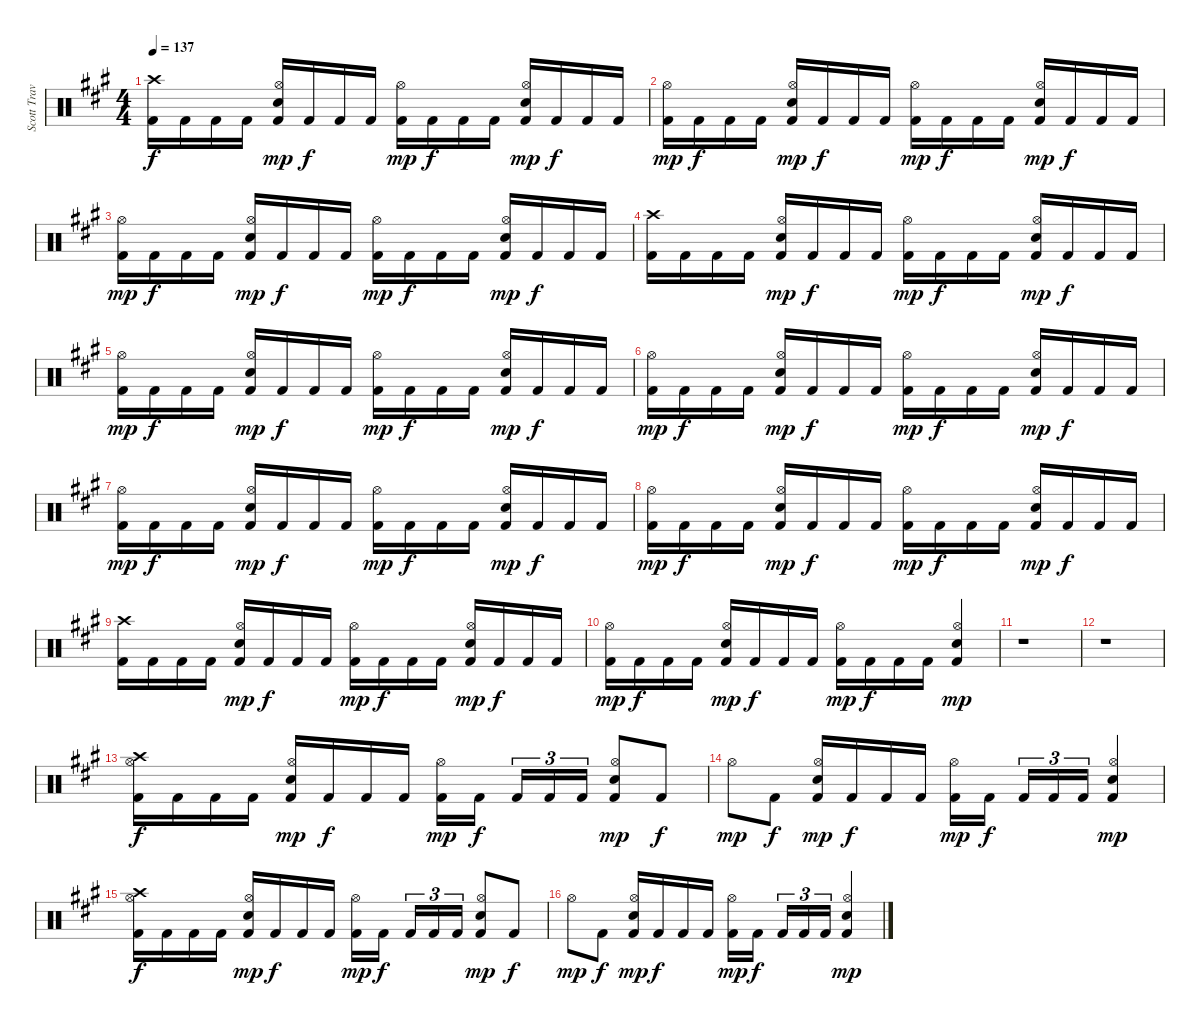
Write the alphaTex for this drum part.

\track ("Scott Travis" "Scott Trav") {instrument percussion}
\staff {score}
\articulation defaults
\ts (4 4)
\tempo 137
\clef neutral
\ks f#minor
("Crash high (hit)" "Kick (hit) 2").16{dy f} "Kick (hit) 2".16 "Kick (hit) 2".16 "Kick (hit) 2".16 ("Hi-Hat (open)" "Snare (hit) 2" "Kick (hit) 2").16{dy mp} "Kick (hit) 2".16{dy f} "Kick (hit) 2".16 "Kick (hit) 2".16 ("Hi-Hat (open)" "Kick (hit) 2").16{dy mp} "Kick (hit) 2".16{dy f} "Kick (hit) 2".16 "Kick (hit) 2".16 ("Hi-Hat (open)" "Snare (hit) 2" "Kick (hit) 2").16{dy mp} "Kick (hit) 2".16{dy f} "Kick (hit) 2".16 "Kick (hit) 2".16 |
("Hi-Hat (open)" "Kick (hit) 2").16{dy mp} "Kick (hit) 2".16{dy f} "Kick (hit) 2".16 "Kick (hit) 2".16 ("Hi-Hat (open)" "Snare (hit) 2" "Kick (hit) 2").16{dy mp} "Kick (hit) 2".16{dy f} "Kick (hit) 2".16 "Kick (hit) 2".16 ("Hi-Hat (open)" "Kick (hit) 2").16{dy mp} "Kick (hit) 2".16{dy f} "Kick (hit) 2".16 "Kick (hit) 2".16 ("Hi-Hat (open)" "Snare (hit) 2" "Kick (hit) 2").16{dy mp} "Kick (hit) 2".16{dy f} "Kick (hit) 2".16 "Kick (hit) 2".16 |
("Hi-Hat (open)" "Kick (hit) 2").16{dy mp} "Kick (hit) 2".16{dy f} "Kick (hit) 2".16 "Kick (hit) 2".16 ("Hi-Hat (open)" "Snare (hit) 2" "Kick (hit) 2").16{dy mp} "Kick (hit) 2".16{dy f} "Kick (hit) 2".16 "Kick (hit) 2".16 ("Hi-Hat (open)" "Kick (hit) 2").16{dy mp} "Kick (hit) 2".16{dy f} "Kick (hit) 2".16 "Kick (hit) 2".16 ("Hi-Hat (open)" "Snare (hit) 2" "Kick (hit) 2").16{dy mp} "Kick (hit) 2".16{dy f} "Kick (hit) 2".16 "Kick (hit) 2".16 |
("Crash high (hit)" "Kick (hit) 2").16 "Kick (hit) 2".16 "Kick (hit) 2".16 "Kick (hit) 2".16 ("Hi-Hat (open)" "Snare (hit) 2" "Kick (hit) 2").16{dy mp} "Kick (hit) 2".16{dy f} "Kick (hit) 2".16 "Kick (hit) 2".16 ("Hi-Hat (open)" "Kick (hit) 2").16{dy mp} "Kick (hit) 2".16{dy f} "Kick (hit) 2".16 "Kick (hit) 2".16 ("Hi-Hat (open)" "Snare (hit) 2" "Kick (hit) 2").16{dy mp} "Kick (hit) 2".16{dy f} "Kick (hit) 2".16 "Kick (hit) 2".16 |
("Hi-Hat (open)" "Kick (hit) 2").16{dy mp} "Kick (hit) 2".16{dy f} "Kick (hit) 2".16 "Kick (hit) 2".16 ("Hi-Hat (open)" "Snare (hit) 2" "Kick (hit) 2").16{dy mp} "Kick (hit) 2".16{dy f} "Kick (hit) 2".16 "Kick (hit) 2".16 ("Hi-Hat (open)" "Kick (hit) 2").16{dy mp} "Kick (hit) 2".16{dy f} "Kick (hit) 2".16 "Kick (hit) 2".16 ("Hi-Hat (open)" "Snare (hit) 2" "Kick (hit) 2").16{dy mp} "Kick (hit) 2".16{dy f} "Kick (hit) 2".16 "Kick (hit) 2".16 |
("Hi-Hat (open)" "Kick (hit) 2").16{dy mp} "Kick (hit) 2".16{dy f} "Kick (hit) 2".16 "Kick (hit) 2".16 ("Hi-Hat (open)" "Snare (hit) 2" "Kick (hit) 2").16{dy mp} "Kick (hit) 2".16{dy f} "Kick (hit) 2".16 "Kick (hit) 2".16 ("Hi-Hat (open)" "Kick (hit) 2").16{dy mp} "Kick (hit) 2".16{dy f} "Kick (hit) 2".16 "Kick (hit) 2".16 ("Hi-Hat (open)" "Snare (hit) 2" "Kick (hit) 2").16{dy mp} "Kick (hit) 2".16{dy f} "Kick (hit) 2".16 "Kick (hit) 2".16 |
("Hi-Hat (open)" "Kick (hit) 2").16{dy mp} "Kick (hit) 2".16{dy f} "Kick (hit) 2".16 "Kick (hit) 2".16 ("Hi-Hat (open)" "Snare (hit) 2" "Kick (hit) 2").16{dy mp} "Kick (hit) 2".16{dy f} "Kick (hit) 2".16 "Kick (hit) 2".16 ("Hi-Hat (open)" "Kick (hit) 2").16{dy mp} "Kick (hit) 2".16{dy f} "Kick (hit) 2".16 "Kick (hit) 2".16 ("Hi-Hat (open)" "Snare (hit) 2" "Kick (hit) 2").16{dy mp} "Kick (hit) 2".16{dy f} "Kick (hit) 2".16 "Kick (hit) 2".16 |
("Hi-Hat (open)" "Kick (hit) 2").16{dy mp} "Kick (hit) 2".16{dy f} "Kick (hit) 2".16 "Kick (hit) 2".16 ("Hi-Hat (open)" "Snare (hit) 2" "Kick (hit) 2").16{dy mp} "Kick (hit) 2".16{dy f} "Kick (hit) 2".16 "Kick (hit) 2".16 ("Hi-Hat (open)" "Kick (hit) 2").16{dy mp} "Kick (hit) 2".16{dy f} "Kick (hit) 2".16 "Kick (hit) 2".16 ("Hi-Hat (open)" "Snare (hit) 2" "Kick (hit) 2").16{dy mp} "Kick (hit) 2".16{dy f} "Kick (hit) 2".16 "Kick (hit) 2".16 |
("Crash high (hit)" "Kick (hit) 2").16 "Kick (hit) 2".16 "Kick (hit) 2".16 "Kick (hit) 2".16 ("Hi-Hat (open)" "Snare (hit) 2" "Kick (hit) 2").16{dy mp} "Kick (hit) 2".16{dy f} "Kick (hit) 2".16 "Kick (hit) 2".16 ("Hi-Hat (open)" "Kick (hit) 2").16{dy mp} "Kick (hit) 2".16{dy f} "Kick (hit) 2".16 "Kick (hit) 2".16 ("Hi-Hat (open)" "Snare (hit) 2" "Kick (hit) 2").16{dy mp} "Kick (hit) 2".16{dy f} "Kick (hit) 2".16 "Kick (hit) 2".16 |
("Hi-Hat (open)" "Kick (hit) 2").16{dy mp} "Kick (hit) 2".16{dy f} "Kick (hit) 2".16 "Kick (hit) 2".16 ("Hi-Hat (open)" "Snare (hit) 2" "Kick (hit) 2").16{dy mp} "Kick (hit) 2".16{dy f} "Kick (hit) 2".16 "Kick (hit) 2".16 ("Hi-Hat (open)" "Kick (hit) 2").16{dy mp} "Kick (hit) 2".16{dy f} "Kick (hit) 2".16 "Kick (hit) 2".16 ("Hi-Hat (open)" "Snare (hit) 2" "Kick (hit) 2").4{dy mp} |
r.1 |
r.1 |
("Hi-Hat (open)" "Crash high (hit)" "Kick (hit) 2").16{dy f} "Kick (hit) 2".16 "Kick (hit) 2".16 "Kick (hit) 2".16 ("Hi-Hat (open)" "Snare (hit) 2" "Kick (hit) 2").16{dy mp} "Kick (hit) 2".16{dy f} "Kick (hit) 2".16 "Kick (hit) 2".16 ("Hi-Hat (open)" "Kick (hit) 2").16{dy mp} "Kick (hit) 2".16{dy f} "Kick (hit) 2".16{tu (3 2)} "Kick (hit) 2".16{tu (3 2)} "Kick (hit) 2".16{tu (3 2)} ("Hi-Hat (open)" "Snare (hit) 2" "Kick (hit) 2").8{dy mp} "Kick (hit) 2".8{dy f} |
"Hi-Hat (open)".8{dy mp} "Kick (hit) 2".8{dy f} ("Hi-Hat (open)" "Snare (hit) 2" "Kick (hit) 2").16{dy mp} "Kick (hit) 2".16{dy f} "Kick (hit) 2".16 "Kick (hit) 2".16 ("Hi-Hat (open)" "Kick (hit) 2").16{dy mp} "Kick (hit) 2".16{dy f} "Kick (hit) 2".16{tu (3 2)} "Kick (hit) 2".16{tu (3 2)} "Kick (hit) 2".16{tu (3 2)} ("Hi-Hat (open)" "Snare (hit) 2" "Kick (hit) 2").4{dy mp} |
("Hi-Hat (open)" "Crash high (hit)" "Kick (hit) 2").16{dy f} "Kick (hit) 2".16 "Kick (hit) 2".16 "Kick (hit) 2".16 ("Hi-Hat (open)" "Snare (hit) 2" "Kick (hit) 2").16{dy mp} "Kick (hit) 2".16{dy f} "Kick (hit) 2".16 "Kick (hit) 2".16 ("Hi-Hat (open)" "Kick (hit) 2").16{dy mp} "Kick (hit) 2".16{dy f} "Kick (hit) 2".16{tu (3 2)} "Kick (hit) 2".16{tu (3 2)} "Kick (hit) 2".16{tu (3 2)} ("Hi-Hat (open)" "Snare (hit) 2" "Kick (hit) 2").8{dy mp} "Kick (hit) 2".8{dy f} |
"Hi-Hat (open)".8{dy mp} "Kick (hit) 2".8{dy f} ("Hi-Hat (open)" "Snare (hit) 2" "Kick (hit) 2").16{dy mp} "Kick (hit) 2".16{dy f} "Kick (hit) 2".16 "Kick (hit) 2".16 ("Hi-Hat (open)" "Kick (hit) 2").16{dy mp} "Kick (hit) 2".16{dy f} "Kick (hit) 2".16{tu (3 2)} "Kick (hit) 2".16{tu (3 2)} "Kick (hit) 2".16{tu (3 2)} ("Hi-Hat (open)" "Snare (hit) 2" "Kick (hit) 2").4{dy mp}
